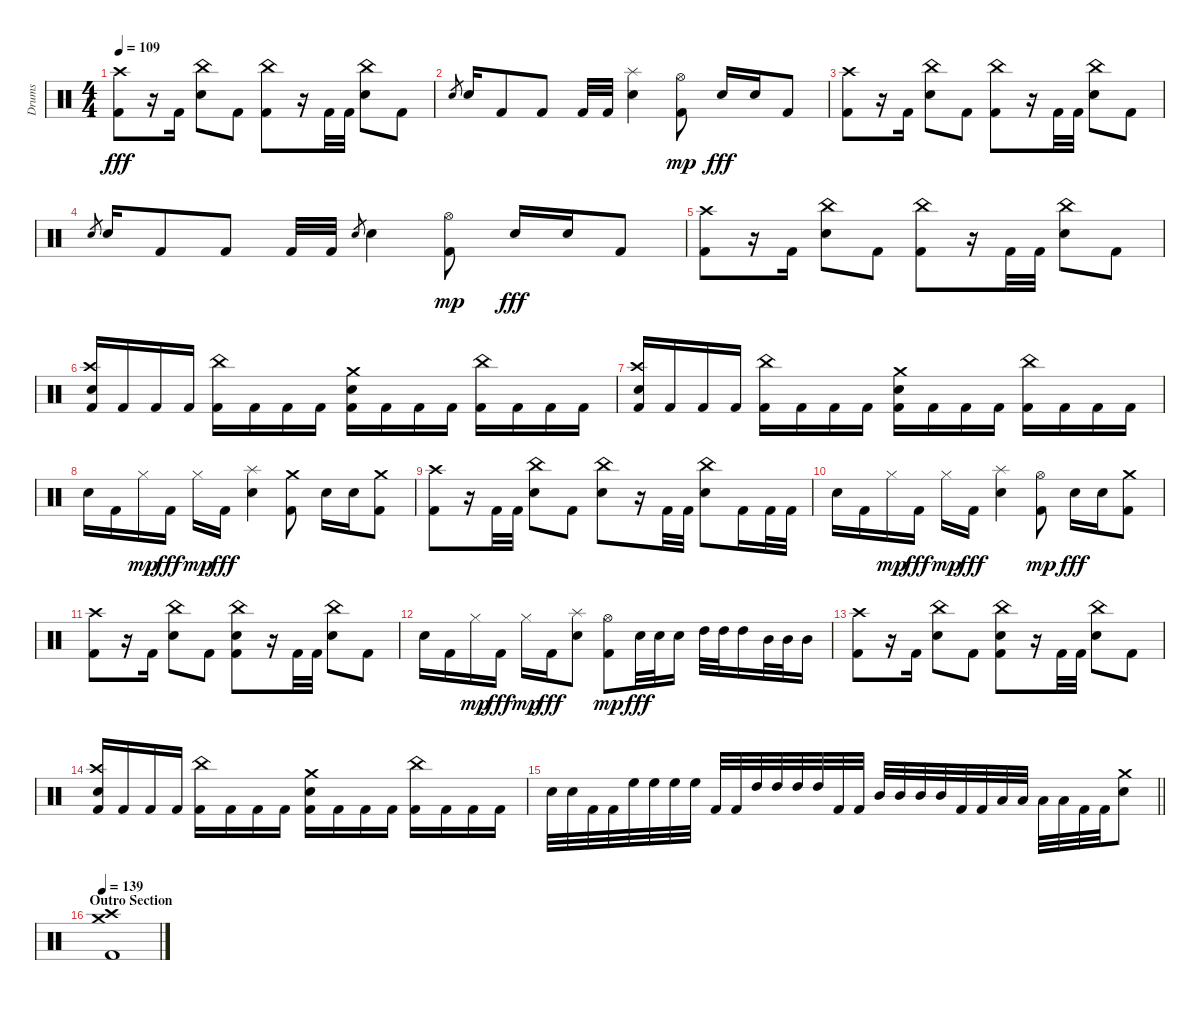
\track ("Drums" "Drums") {instrument percussion}
\staff {score}
\articulation defaults
\ts (4 4)
\tempo 109
\clef neutral
\ks c
("Kick (hit) 2" "Crash high (hit)").8{dy fff} r.16 "Kick (hit) 2".16 ("Electric Snare (hit)" "China (hit)").8 "Kick (hit) 2".8 ("Kick (hit) 2" "China (hit)").8 r.16 "Kick (hit) 2".32 "Kick (hit) 2".32 ("Electric Snare (hit)" "China (hit)").8 "Kick (hit) 2".8 |
"Electric Snare (hit)".8{gr} "Electric Snare (hit)".16 "Kick (hit) 2".8 "Kick (hit) 2".8 "Kick (hit) 2".32 "Kick (hit) 2".32 ("Electric Snare (hit)" "Splash (hit)").4 ("Kick (hit) 2" "Hi-Hat (open)").8{dy mp} "Electric Snare (hit)".16{dy fff} "Electric Snare (hit)".16 "Kick (hit) 2".8 |
("Kick (hit) 2" "Crash high (hit)").8 r.16 "Kick (hit) 2".16 ("Electric Snare (hit)" "China (hit)").8 "Kick (hit) 2".8 ("Kick (hit) 2" "China (hit)").8 r.16 "Kick (hit) 2".32 "Kick (hit) 2".32 ("Electric Snare (hit)" "China (hit)").8 "Kick (hit) 2".8 |
"Electric Snare (hit)".8{gr} "Electric Snare (hit)".16 "Kick (hit) 2".8 "Kick (hit) 2".8 "Kick (hit) 2".32 "Kick (hit) 2".32 "Electric Snare (hit)".8{gr} "Electric Snare (hit)".4 ("Kick (hit) 2" "Hi-Hat (open)").8{dy mp} "Electric Snare (hit)".16{dy fff} "Electric Snare (hit)".16 "Kick (hit) 2".8 |
("Kick (hit) 2" "Crash high (hit)").8 r.16 "Kick (hit) 2".16 ("Electric Snare (hit)" "China (hit)").8 "Kick (hit) 2".8 ("Kick (hit) 2" "China (hit)").8 r.16 "Kick (hit) 2".32 "Kick (hit) 2".32 ("Electric Snare (hit)" "China (hit)").8 "Kick (hit) 2".8 |
("Kick (hit) 2" "Electric Snare (hit)" "Crash high (hit)").16 "Kick (hit) 2".16 "Kick (hit) 2".16 "Kick (hit) 2".16 ("Kick (hit) 2" "China (hit)").16 "Kick (hit) 2".16 "Kick (hit) 2".16 "Kick (hit) 2".16 ("Kick (hit) 2" "Electric Snare (hit)" "Crash medium (hit)").16 "Kick (hit) 2".16 "Kick (hit) 2".16 "Kick (hit) 2".16 ("Kick (hit) 2" "China (hit)").16 "Kick (hit) 2".16 "Kick (hit) 2".16 "Kick (hit) 2".16 |
("Kick (hit) 2" "Electric Snare (hit)" "Crash high (hit)").16 "Kick (hit) 2".16 "Kick (hit) 2".16 "Kick (hit) 2".16 ("Kick (hit) 2" "China (hit)").16 "Kick (hit) 2".16 "Kick (hit) 2".16 "Kick (hit) 2".16 ("Kick (hit) 2" "Electric Snare (hit)" "Crash medium (hit)").16 "Kick (hit) 2".16 "Kick (hit) 2".16 "Kick (hit) 2".16 ("Kick (hit) 2" "China (hit)").16 "Kick (hit) 2".16 "Kick (hit) 2".16 "Kick (hit) 2".16 |
"Electric Snare (hit)".16 "Kick (hit) 2".16 "Hi-Hat (closed)".16{dy mp} "Kick (hit) 2".16{dy fff} "Hi-Hat (closed)".16{dy mp} "Kick (hit) 2".16{dy fff} ("Electric Snare (hit)" "Splash (hit)").4 ("Kick (hit) 2" "Crash medium (hit)").8 "Electric Snare (hit)".16 "Electric Snare (hit)".16 ("Kick (hit) 2" "Crash medium (hit)").8 |
("Kick (hit) 2" "Crash high (hit)").8 r.16 "Kick (hit) 2".32 "Kick (hit) 2".32 ("Electric Snare (hit)" "China (hit)").8 "Kick (hit) 2".8 ("Electric Snare (hit)" "China (hit)").8 r.16 "Kick (hit) 2".32 "Kick (hit) 2".32 ("Electric Snare (hit)" "China (hit)").8 "Kick (hit) 2".16 "Kick (hit) 2".32 "Kick (hit) 2".32 |
"Electric Snare (hit)".16 "Kick (hit) 2".16 "Hi-Hat (closed)".16{dy mp} "Kick (hit) 2".16{dy fff} "Hi-Hat (closed)".16{dy mp} "Kick (hit) 2".16{dy fff} ("Electric Snare (hit)" "Splash (hit)").4 ("Kick (hit) 2" "Hi-Hat (open)").8{dy mp} "Electric Snare (hit)".16{dy fff} "Electric Snare (hit)".16 ("Kick (hit) 2" "Crash medium (hit)").8 |
("Kick (hit) 2" "Crash high (hit)").8 r.16 "Kick (hit) 2".16 ("Electric Snare (hit)" "China (hit)").8 "Kick (hit) 2".8 ("Kick (hit) 2" "Electric Snare (hit)" "China (hit)").8 r.16 "Kick (hit) 2".32 "Kick (hit) 2".32 ("Electric Snare (hit)" "China (hit)").8 "Kick (hit) 2".8 |
"Electric Snare (hit)".16 "Kick (hit) 2".16 "Hi-Hat (closed)".16{dy mp} "Kick (hit) 2".16{dy fff} "Hi-Hat (closed)".16{dy mp} "Kick (hit) 2".16{dy fff} ("Electric Snare (hit)" "Splash (hit)").8 ("Kick (hit) 2" "Hi-Hat (open)").8{dy mp} "Electric Snare (hit)".32{dy fff} "Electric Snare (hit)".32 "Electric Snare (hit)".16 "High Tom (hit)".32 "High Tom (hit)".32 "High Tom (hit)".16 "Mid Tom (hit)".32 "Mid Tom (hit)".32 "Mid Tom (hit)".16 |
("Kick (hit) 2" "Crash high (hit)").8 r.16 "Kick (hit) 2".16 ("Electric Snare (hit)" "China (hit)").8 "Kick (hit) 2".8 ("Kick (hit) 2" "Electric Snare (hit)" "China (hit)").8 r.16 "Kick (hit) 2".32 "Kick (hit) 2".32 ("Electric Snare (hit)" "China (hit)").8 "Kick (hit) 2".8 |
("Kick (hit) 2" "Electric Snare (hit)" "Crash high (hit)").16 "Kick (hit) 2".16 "Kick (hit) 2".16 "Kick (hit) 2".16 ("Kick (hit) 2" "China (hit)").16 "Kick (hit) 2".16 "Kick (hit) 2".16 "Kick (hit) 2".16 ("Kick (hit) 2" "Electric Snare (hit)" "Crash medium (hit)").16 "Kick (hit) 2".16 "Kick (hit) 2".16 "Kick (hit) 2".16 ("Kick (hit) 2" "China (hit)").16 "Kick (hit) 2".16 "Kick (hit) 2".16 "Kick (hit) 2".16 |
\barLineRight lightlight "Electric Snare (hit)".32 "Electric Snare (hit)".32 "Kick (hit) 2".32 "Kick (hit) 2".32 "High Floor Tom (hit)".32 "High Floor Tom (hit)".32 "High Floor Tom (hit)".32 "High Floor Tom (hit)".32 "Kick (hit) 2".32 "Kick (hit) 2".32 "High Tom (hit)".32 "High Tom (hit)".32 "High Tom (hit)".32 "High Tom (hit)".32 "Kick (hit) 2".32 "Kick (hit) 2".32 "Mid Tom (hit)".32 "Mid Tom (hit)".32 "Mid Tom (hit)".32 "Mid Tom (hit)".32 "Kick (hit) 2".32 "Kick (hit) 2".32 "Low Tom (hit)".32 "Low Tom (hit)".32 "Low Tom (hit)".32 "Low Tom (hit)".32 "Kick (hit) 2".32 "Kick (hit) 2".32
("Electric Snare (hit)" "Crash medium (hit)").8 |
\section ("" "Outro Section")
\tempo 139
("Kick (hit) 2" "Crash medium (hit)" "Crash high (hit)").1
